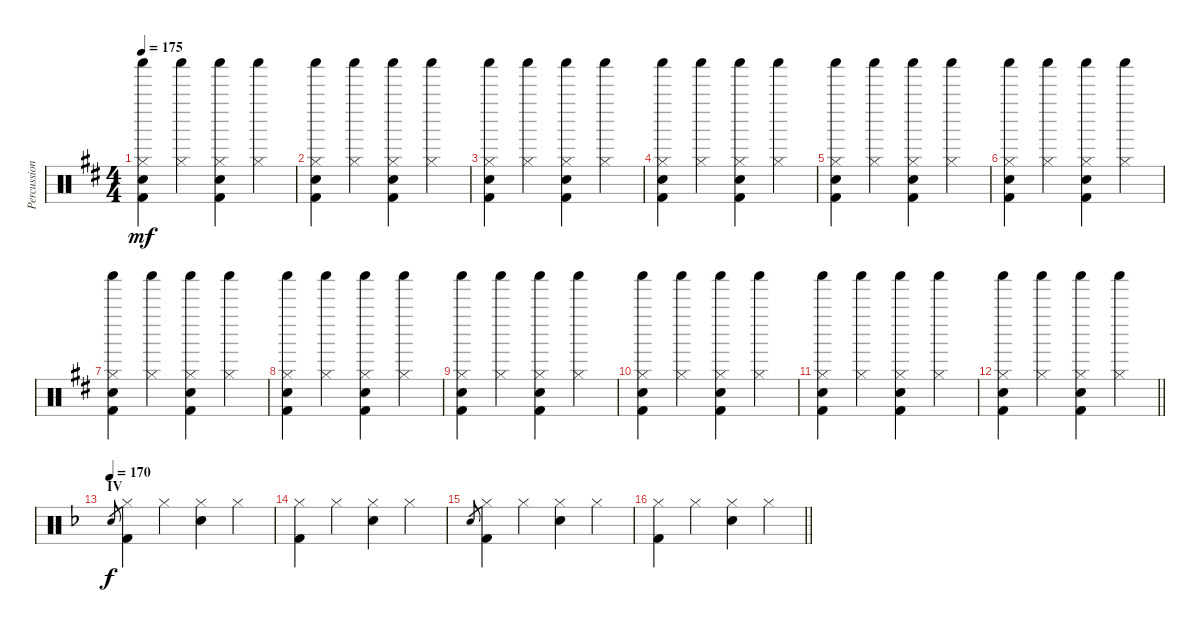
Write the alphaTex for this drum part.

\track ("Percussion [Nick Mason]" "Percussion") {instrument percussion}
\staff {score}
\articulation defaults
\ts (4 4)
\tempo 175
\clef neutral
\ks d
("Shaker (hit)" "Hi-Hat (closed)" "Snare (hit) 2" "Kick (hit) 2").4{dy mf} ("Shaker (hit)" "Hi-Hat (closed)").4 ("Shaker (hit)" "Hi-Hat (closed)" "Snare (hit) 2" "Kick (hit) 2").4 ("Shaker (hit)" "Hi-Hat (closed)").4 |
("Shaker (hit)" "Hi-Hat (closed)" "Snare (hit) 2" "Kick (hit) 2").4 ("Shaker (hit)" "Hi-Hat (closed)").4 ("Shaker (hit)" "Hi-Hat (closed)" "Snare (hit) 2" "Kick (hit) 2").4 ("Shaker (hit)" "Hi-Hat (closed)").4 |
("Shaker (hit)" "Hi-Hat (closed)" "Snare (hit) 2" "Kick (hit) 2").4 ("Shaker (hit)" "Hi-Hat (closed)").4 ("Shaker (hit)" "Hi-Hat (closed)" "Snare (hit) 2" "Kick (hit) 2").4 ("Shaker (hit)" "Hi-Hat (closed)").4 |
("Shaker (hit)" "Hi-Hat (closed)" "Snare (hit) 2" "Kick (hit) 2").4 ("Shaker (hit)" "Hi-Hat (closed)").4 ("Shaker (hit)" "Hi-Hat (closed)" "Snare (hit) 2" "Kick (hit) 2").4 ("Shaker (hit)" "Hi-Hat (closed)").4 |
("Shaker (hit)" "Hi-Hat (closed)" "Snare (hit) 2" "Kick (hit) 2").4 ("Shaker (hit)" "Hi-Hat (closed)").4 ("Shaker (hit)" "Hi-Hat (closed)" "Snare (hit) 2" "Kick (hit) 2").4 ("Shaker (hit)" "Hi-Hat (closed)").4 |
("Shaker (hit)" "Hi-Hat (closed)" "Snare (hit) 2" "Kick (hit) 2").4 ("Shaker (hit)" "Hi-Hat (closed)").4 ("Shaker (hit)" "Hi-Hat (closed)" "Snare (hit) 2" "Kick (hit) 2").4 ("Shaker (hit)" "Hi-Hat (closed)").4 |
("Shaker (hit)" "Hi-Hat (closed)" "Snare (hit) 2" "Kick (hit) 2").4 ("Shaker (hit)" "Hi-Hat (closed)").4 ("Shaker (hit)" "Hi-Hat (closed)" "Snare (hit) 2" "Kick (hit) 2").4 ("Shaker (hit)" "Hi-Hat (closed)").4 |
("Shaker (hit)" "Hi-Hat (closed)" "Snare (hit) 2" "Kick (hit) 2").4 ("Shaker (hit)" "Hi-Hat (closed)").4 ("Shaker (hit)" "Hi-Hat (closed)" "Snare (hit) 2" "Kick (hit) 2").4 ("Shaker (hit)" "Hi-Hat (closed)").4 |
("Shaker (hit)" "Hi-Hat (closed)" "Snare (hit) 2" "Kick (hit) 2").4 ("Shaker (hit)" "Hi-Hat (closed)").4 ("Shaker (hit)" "Hi-Hat (closed)" "Snare (hit) 2" "Kick (hit) 2").4 ("Shaker (hit)" "Hi-Hat (closed)").4 |
("Shaker (hit)" "Hi-Hat (closed)" "Snare (hit) 2" "Kick (hit) 2").4 ("Shaker (hit)" "Hi-Hat (closed)").4 ("Shaker (hit)" "Hi-Hat (closed)" "Snare (hit) 2" "Kick (hit) 2").4 ("Shaker (hit)" "Hi-Hat (closed)").4 |
("Shaker (hit)" "Hi-Hat (closed)" "Snare (hit) 2" "Kick (hit) 2").4 ("Shaker (hit)" "Hi-Hat (closed)").4 ("Shaker (hit)" "Hi-Hat (closed)" "Snare (hit) 2" "Kick (hit) 2").4 ("Shaker (hit)" "Hi-Hat (closed)").4 |
\barLineRight lightlight
("Shaker (hit)" "Hi-Hat (closed)" "Snare (hit) 2" "Kick (hit) 2").4 ("Shaker (hit)" "Hi-Hat (closed)").4 ("Shaker (hit)" "Hi-Hat (closed)" "Snare (hit) 2" "Kick (hit) 2").4 ("Shaker (hit)" "Hi-Hat (closed)").4 |
\section ("" "IV")
\tempo 170
\ks dminor "Snare (hit) 2".8{gr dy f}
("Hi-Hat (closed)" "Kick (hit) 2").4 "Hi-Hat (closed)".4 ("Hi-Hat (closed)" "Snare (hit) 2").4 "Hi-Hat (closed)".4 |
("Hi-Hat (closed)" "Kick (hit) 2").4 "Hi-Hat (closed)".4 ("Hi-Hat (closed)" "Snare (hit) 2").4 "Hi-Hat (closed)".4 |
"Snare (hit) 2".8{gr} ("Hi-Hat (closed)" "Kick (hit) 2").4 "Hi-Hat (closed)".4 ("Hi-Hat (closed)" "Snare (hit) 2").4 "Hi-Hat (closed)".4 |
\barLineRight lightlight
("Hi-Hat (closed)" "Kick (hit) 2").4 "Hi-Hat (closed)".4 ("Hi-Hat (closed)" "Snare (hit) 2").4 "Hi-Hat (closed)".4
